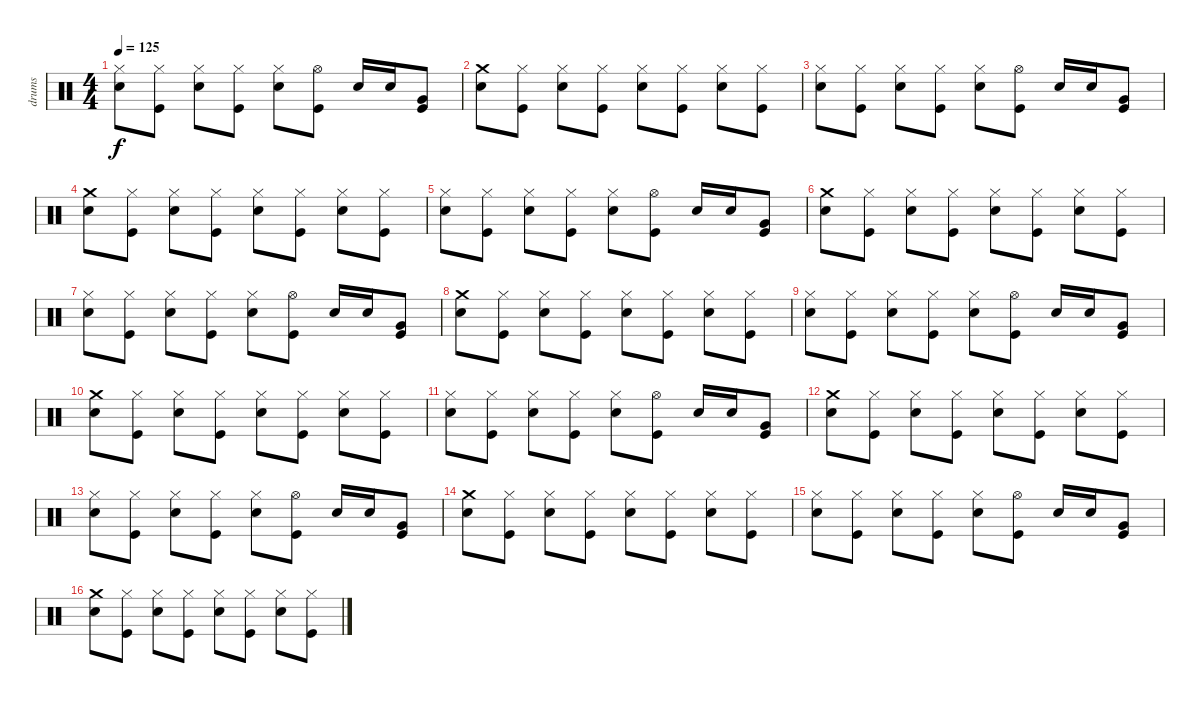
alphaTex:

\track ("drums" "drums") {instrument percussion}
\staff {score}
\articulation defaults
\ts (4 4)
\tempo 125
\clef neutral
\ks c
("Hi-Hat (closed)" "Electric Snare (hit)").8{dy f} ("Hi-Hat (closed)" "Kick (hit)").8 ("Hi-Hat (closed)" "Electric Snare (hit)").8 ("Hi-Hat (closed)" "Kick (hit)").8 ("Hi-Hat (closed)" "Electric Snare (hit)").8 ("Hi-Hat (open)" "Kick (hit)").8 "Electric Snare (hit)".16 "Electric Snare (hit)".16 ("Very Low Tom (hit)" "Kick (hit)").8 |
("Crash medium (hit)" "Electric Snare (hit)").8 ("Hi-Hat (closed)" "Kick (hit)").8 ("Hi-Hat (closed)" "Electric Snare (hit)").8 ("Hi-Hat (closed)" "Kick (hit)").8 ("Hi-Hat (closed)" "Electric Snare (hit)").8 ("Hi-Hat (closed)" "Kick (hit)").8 ("Hi-Hat (closed)" "Electric Snare (hit)").8 ("Hi-Hat (closed)" "Kick (hit)").8 |
("Hi-Hat (closed)" "Electric Snare (hit)").8 ("Hi-Hat (closed)" "Kick (hit)").8 ("Hi-Hat (closed)" "Electric Snare (hit)").8 ("Hi-Hat (closed)" "Kick (hit)").8 ("Hi-Hat (closed)" "Electric Snare (hit)").8 ("Hi-Hat (open)" "Kick (hit)").8 "Electric Snare (hit)".16 "Electric Snare (hit)".16 ("Very Low Tom (hit)" "Kick (hit)").8 |
("Crash medium (hit)" "Electric Snare (hit)").8 ("Hi-Hat (closed)" "Kick (hit)").8 ("Hi-Hat (closed)" "Electric Snare (hit)").8 ("Hi-Hat (closed)" "Kick (hit)").8 ("Hi-Hat (closed)" "Electric Snare (hit)").8 ("Hi-Hat (closed)" "Kick (hit)").8 ("Hi-Hat (closed)" "Electric Snare (hit)").8 ("Hi-Hat (closed)" "Kick (hit)").8 |
("Hi-Hat (closed)" "Electric Snare (hit)").8 ("Hi-Hat (closed)" "Kick (hit)").8 ("Hi-Hat (closed)" "Electric Snare (hit)").8 ("Hi-Hat (closed)" "Kick (hit)").8 ("Hi-Hat (closed)" "Electric Snare (hit)").8 ("Hi-Hat (open)" "Kick (hit)").8 "Electric Snare (hit)".16 "Electric Snare (hit)".16 ("Very Low Tom (hit)" "Kick (hit)").8 |
("Crash medium (hit)" "Electric Snare (hit)").8 ("Hi-Hat (closed)" "Kick (hit)").8 ("Hi-Hat (closed)" "Electric Snare (hit)").8 ("Hi-Hat (closed)" "Kick (hit)").8 ("Hi-Hat (closed)" "Electric Snare (hit)").8 ("Hi-Hat (closed)" "Kick (hit)").8 ("Hi-Hat (closed)" "Electric Snare (hit)").8 ("Hi-Hat (closed)" "Kick (hit)").8 |
("Hi-Hat (closed)" "Electric Snare (hit)").8 ("Hi-Hat (closed)" "Kick (hit)").8 ("Hi-Hat (closed)" "Electric Snare (hit)").8 ("Hi-Hat (closed)" "Kick (hit)").8 ("Hi-Hat (closed)" "Electric Snare (hit)").8 ("Hi-Hat (open)" "Kick (hit)").8 "Electric Snare (hit)".16 "Electric Snare (hit)".16 ("Very Low Tom (hit)" "Kick (hit)").8 |
\section ("" "")
("Crash medium (hit)" "Electric Snare (hit)").8 ("Hi-Hat (closed)" "Kick (hit)").8 ("Hi-Hat (closed)" "Electric Snare (hit)").8 ("Hi-Hat (closed)" "Kick (hit)").8 ("Hi-Hat (closed)" "Electric Snare (hit)").8 ("Hi-Hat (closed)" "Kick (hit)").8 ("Hi-Hat (closed)" "Electric Snare (hit)").8 ("Hi-Hat (closed)" "Kick (hit)").8 |
("Hi-Hat (closed)" "Electric Snare (hit)").8 ("Hi-Hat (closed)" "Kick (hit)").8 ("Hi-Hat (closed)" "Electric Snare (hit)").8 ("Hi-Hat (closed)" "Kick (hit)").8 ("Hi-Hat (closed)" "Electric Snare (hit)").8 ("Hi-Hat (open)" "Kick (hit)").8 "Electric Snare (hit)".16 "Electric Snare (hit)".16 ("Very Low Tom (hit)" "Kick (hit)").8 |
("Crash medium (hit)" "Electric Snare (hit)").8 ("Hi-Hat (closed)" "Kick (hit)").8 ("Hi-Hat (closed)" "Electric Snare (hit)").8 ("Hi-Hat (closed)" "Kick (hit)").8 ("Hi-Hat (closed)" "Electric Snare (hit)").8 ("Hi-Hat (closed)" "Kick (hit)").8 ("Hi-Hat (closed)" "Electric Snare (hit)").8 ("Hi-Hat (closed)" "Kick (hit)").8 |
("Hi-Hat (closed)" "Electric Snare (hit)").8 ("Hi-Hat (closed)" "Kick (hit)").8 ("Hi-Hat (closed)" "Electric Snare (hit)").8 ("Hi-Hat (closed)" "Kick (hit)").8 ("Hi-Hat (closed)" "Electric Snare (hit)").8 ("Hi-Hat (open)" "Kick (hit)").8 "Electric Snare (hit)".16 "Electric Snare (hit)".16 ("Very Low Tom (hit)" "Kick (hit)").8 |
("Crash medium (hit)" "Electric Snare (hit)").8 ("Hi-Hat (closed)" "Kick (hit)").8 ("Hi-Hat (closed)" "Electric Snare (hit)").8 ("Hi-Hat (closed)" "Kick (hit)").8 ("Hi-Hat (closed)" "Electric Snare (hit)").8 ("Hi-Hat (closed)" "Kick (hit)").8 ("Hi-Hat (closed)" "Electric Snare (hit)").8 ("Hi-Hat (closed)" "Kick (hit)").8 |
("Hi-Hat (closed)" "Electric Snare (hit)").8 ("Hi-Hat (closed)" "Kick (hit)").8 ("Hi-Hat (closed)" "Electric Snare (hit)").8 ("Hi-Hat (closed)" "Kick (hit)").8 ("Hi-Hat (closed)" "Electric Snare (hit)").8 ("Hi-Hat (open)" "Kick (hit)").8 "Electric Snare (hit)".16 "Electric Snare (hit)".16 ("Very Low Tom (hit)" "Kick (hit)").8 |
("Crash medium (hit)" "Electric Snare (hit)").8 ("Hi-Hat (closed)" "Kick (hit)").8 ("Hi-Hat (closed)" "Electric Snare (hit)").8 ("Hi-Hat (closed)" "Kick (hit)").8 ("Hi-Hat (closed)" "Electric Snare (hit)").8 ("Hi-Hat (closed)" "Kick (hit)").8 ("Hi-Hat (closed)" "Electric Snare (hit)").8 ("Hi-Hat (closed)" "Kick (hit)").8 |
("Hi-Hat (closed)" "Electric Snare (hit)").8 ("Hi-Hat (closed)" "Kick (hit)").8 ("Hi-Hat (closed)" "Electric Snare (hit)").8 ("Hi-Hat (closed)" "Kick (hit)").8 ("Hi-Hat (closed)" "Electric Snare (hit)").8 ("Hi-Hat (open)" "Kick (hit)").8 "Electric Snare (hit)".16 "Electric Snare (hit)".16 ("Very Low Tom (hit)" "Kick (hit)").8 |
\section ("" "")
("Crash medium (hit)" "Electric Snare (hit)").8 ("Hi-Hat (closed)" "Kick (hit)").8 ("Hi-Hat (closed)" "Electric Snare (hit)").8 ("Hi-Hat (closed)" "Kick (hit)").8 ("Hi-Hat (closed)" "Electric Snare (hit)").8 ("Hi-Hat (closed)" "Kick (hit)").8 ("Hi-Hat (closed)" "Electric Snare (hit)").8 ("Hi-Hat (closed)" "Kick (hit)").8
